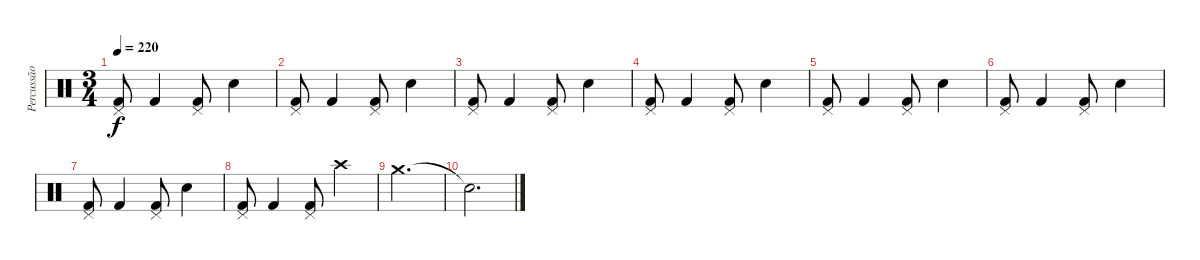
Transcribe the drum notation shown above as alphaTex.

\track ("Percussão" "Percussão") {instrument percussion}
\staff {score}
\articulation defaults
\ts (3 4)
\tempo 220
\clef neutral
\ks c
("Pedal Hi-Hat (hit)" "Kick (hit) 2").8{dy f} "Kick (hit) 2".4 ("Pedal Hi-Hat (hit)" "Kick (hit) 2").8 "Snare (hit) 2".4 |
("Pedal Hi-Hat (hit)" "Kick (hit) 2").8 "Kick (hit) 2".4 ("Pedal Hi-Hat (hit)" "Kick (hit) 2").8 "Snare (hit) 2".4 |
("Pedal Hi-Hat (hit)" "Kick (hit) 2").8 "Kick (hit) 2".4 ("Pedal Hi-Hat (hit)" "Kick (hit) 2").8 "Snare (hit) 2".4 |
("Pedal Hi-Hat (hit)" "Kick (hit) 2").8 "Kick (hit) 2".4 ("Pedal Hi-Hat (hit)" "Kick (hit) 2").8 "Snare (hit) 2".4 |
("Pedal Hi-Hat (hit)" "Kick (hit) 2").8 "Kick (hit) 2".4 ("Pedal Hi-Hat (hit)" "Kick (hit) 2").8 "Snare (hit) 2".4 |
("Pedal Hi-Hat (hit)" "Kick (hit) 2").8 "Kick (hit) 2".4 ("Pedal Hi-Hat (hit)" "Kick (hit) 2").8 "Snare (hit) 2".4 |
("Pedal Hi-Hat (hit)" "Kick (hit) 2").8 "Kick (hit) 2".4 ("Pedal Hi-Hat (hit)" "Kick (hit) 2").8 "Snare (hit) 2".4 |
("Pedal Hi-Hat (hit)" "Kick (hit) 2").8 "Kick (hit) 2".4 ("Pedal Hi-Hat (hit)" "Kick (hit) 2").8 "Crash high (hit)".4 |
"Crash medium (hit)".2{d} |
"Snare (hit)"{t}.2{d}
